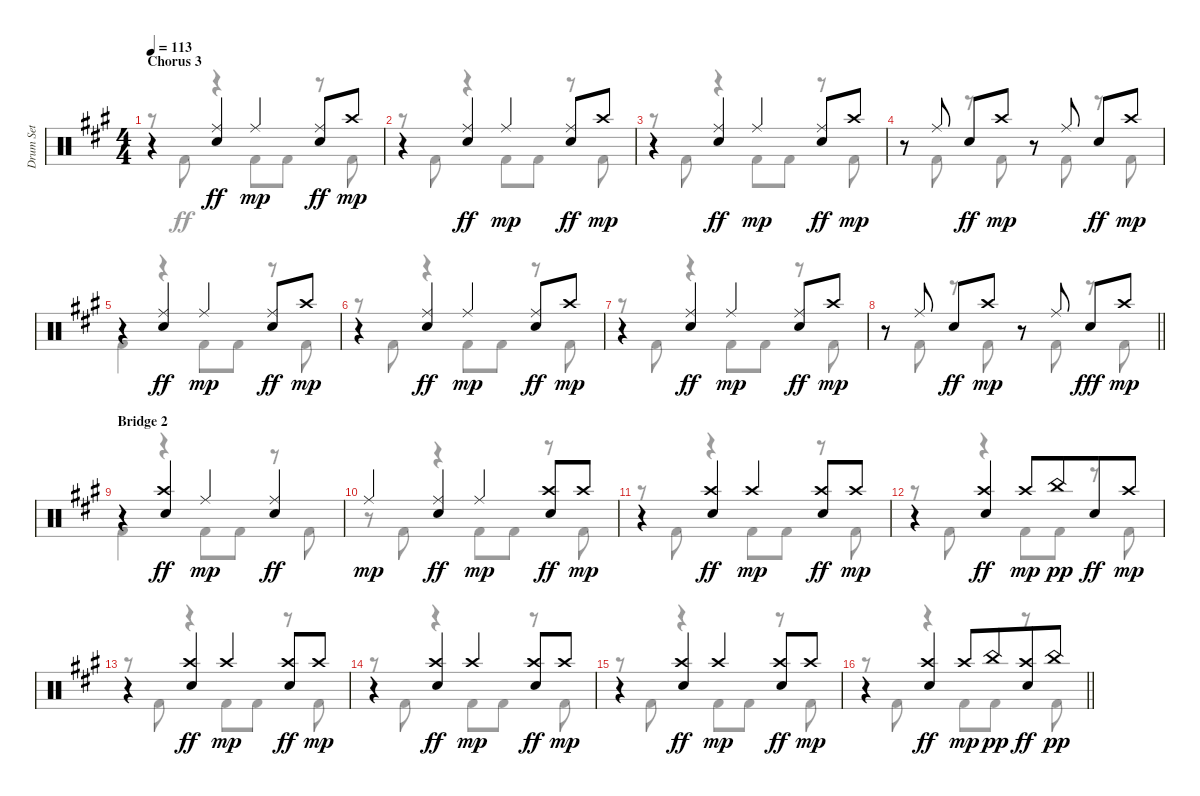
\track ("Drum Set" "Drum Set") {instrument percussion}
\staff {score}
\articulation defaults
\voice
\ts (4 4)
\section ("" "Chorus 3")
\tempo 113
\clef neutral
\ks f#minor
r.4{dy mp} ("Ride (middle)" "Electric Snare (hit)").4{dy ff} "Ride (middle)".4{dy mp} ("Ride (middle)" "Electric Snare (hit)").8{dy ff} "Crash high (hit)".8{dy mp} |
r.4 ("Ride (middle)" "Electric Snare (hit)").4{dy ff} "Ride (middle)".4{dy mp} ("Ride (middle)" "Electric Snare (hit)").8{dy ff} "Crash high (hit)".8{dy mp} |
r.4 ("Ride (middle)" "Electric Snare (hit)").4{dy ff} "Ride (middle)".4{dy mp} ("Ride (middle)" "Electric Snare (hit)").8{dy ff} "Crash high (hit)".8{dy mp} |
r.8 "Ride (middle)".8 "Electric Snare (hit)".8{dy ff} "Crash high (hit)".8{dy mp} r.8 "Ride (middle)".8 "Electric Snare (hit)".8{dy ff} "Crash high (hit)".8{dy mp} |
r.4 ("Ride (middle)" "Electric Snare (hit)").4{dy ff} "Ride (middle)".4{dy mp} ("Ride (middle)" "Electric Snare (hit)").8{dy ff} "Crash high (hit)".8{dy mp} |
r.4 ("Ride (middle)" "Electric Snare (hit)").4{dy ff} "Ride (middle)".4{dy mp} ("Ride (middle)" "Electric Snare (hit)").8{dy ff} "Crash high (hit)".8{dy mp} |
r.4 ("Ride (middle)" "Electric Snare (hit)").4{dy ff} "Ride (middle)".4{dy mp} ("Ride (middle)" "Electric Snare (hit)").8{dy ff} "Crash high (hit)".8{dy mp} |
\barLineRight lightlight
r.8 "Ride (middle)".8 "Electric Snare (hit)".8{dy ff} "Crash high (hit)".8{dy mp} r.8 "Ride (middle)".8 "Electric Snare (hit)".8{dy fff} "Crash high (hit)".8{dy mp} |
\section ("" "Bridge 2")
r.4 ("Crash high (hit)" "Electric Snare (hit)").4{dy ff} "Ride (middle)".4{dy mp} ("Ride (middle)" "Electric Snare (hit)").4{dy ff} |
"Ride (middle)".4{dy mp} ("Ride (middle)" "Electric Snare (hit)").4{dy ff} "Ride (middle)".4{dy mp} ("Crash high (hit)" "Electric Snare (hit)").8{dy ff} "Crash high (hit)".8{dy mp} |
r.4 ("Crash high (hit)" "Electric Snare (hit)").4{dy ff} "Crash high (hit)".4{dy mp} ("Crash high (hit)" "Electric Snare (hit)").8{dy ff} "Crash high (hit)".8{dy mp} |
r.4 ("Crash high (hit)" "Electric Snare (hit)").4{dy ff} "Crash high (hit)".8{dy mp} "China (hit)".8{dy pp beam merge} "Electric Snare (hit)".8{dy ff} "Crash high (hit)".8{dy mp} |
r.4 ("Crash high (hit)" "Electric Snare (hit)").4{dy ff} "Crash high (hit)".4{dy mp} ("Crash high (hit)" "Electric Snare (hit)").8{dy ff} "Crash high (hit)".8{dy mp} |
r.4 ("Crash high (hit)" "Electric Snare (hit)").4{dy ff} "Crash high (hit)".4{dy mp} ("Crash high (hit)" "Electric Snare (hit)").8{dy ff} "Crash high (hit)".8{dy mp} |
r.4 ("Crash high (hit)" "Electric Snare (hit)").4{dy ff} "Crash high (hit)".4{dy mp} ("Crash high (hit)" "Electric Snare (hit)").8{dy ff} "Crash high (hit)".8{dy mp} |
\barLineRight lightlight
r.4 ("Crash high (hit)" "Electric Snare (hit)").4{dy ff} "Crash high (hit)".8{dy mp} "China (hit)".8{dy pp beam merge} ("Crash high (hit)" "Electric Snare (hit)").8{dy ff} "China (hit)".8{dy pp}
\voice
\clef neutral
\ottava regular
\simile none
\ks f#minor
r.8{dy ff} "Kick (hit) 2".8 r.4 "Kick (hit) 2".8 "Kick (hit) 2".8 r.8 "Kick (hit) 2".8 |
r.8 "Kick (hit) 2".8 r.4 "Kick (hit) 2".8 "Kick (hit) 2".8 r.8 "Kick (hit) 2".8 |
r.8 "Kick (hit) 2".8 r.4 "Kick (hit) 2".8 "Kick (hit) 2".8 r.8 "Kick (hit) 2".8 |
r.8 "Kick (hit) 2".8 r.8 "Kick (hit) 2".8 r.8 "Kick (hit) 2".8 r.8 "Kick (hit) 2".8 |
"Kick (hit) 2".4 r.4 "Kick (hit) 2".8 "Kick (hit) 2".8 r.8 "Kick (hit) 2".8 |
r.8 "Kick (hit) 2".8 r.4 "Kick (hit) 2".8 "Kick (hit) 2".8 r.8 "Kick (hit) 2".8 |
r.8 "Kick (hit) 2".8 r.4 "Kick (hit) 2".8 "Kick (hit) 2".8 r.8 "Kick (hit) 2".8 |
\barLineRight lightlight
r.8 "Kick (hit) 2".8 r.8 "Kick (hit) 2".8 r.8 "Kick (hit) 2".8 r.8 "Kick (hit) 2".8 |
"Kick (hit) 2".4 r.4 "Kick (hit) 2".8 "Kick (hit) 2".8 r.8 "Kick (hit) 2".8 |
r.8 "Kick (hit) 2".8 r.4 "Kick (hit) 2".8 "Kick (hit) 2".8 r.8 "Kick (hit) 2".8 |
r.8 "Kick (hit) 2".8 r.4 "Kick (hit) 2".8 "Kick (hit) 2".8 r.8 "Kick (hit) 2".8 |
r.8 "Kick (hit) 2".8 r.4 "Kick (hit) 2".8 "Kick (hit) 2".8 r.8 "Kick (hit) 2".8 |
r.8 "Kick (hit) 2".8 r.4 "Kick (hit) 2".8 "Kick (hit) 2".8 r.8 "Kick (hit) 2".8 |
r.8 "Kick (hit) 2".8 r.4 "Kick (hit) 2".8 "Kick (hit) 2".8 r.8 "Kick (hit) 2".8 |
r.8 "Kick (hit) 2".8 r.4 "Kick (hit) 2".8 "Kick (hit) 2".8 r.8 "Kick (hit) 2".8 |
\barLineRight lightlight
r.8 "Kick (hit) 2".8 r.4 "Kick (hit) 2".8 "Kick (hit) 2".8 r.8 "Kick (hit) 2".8
